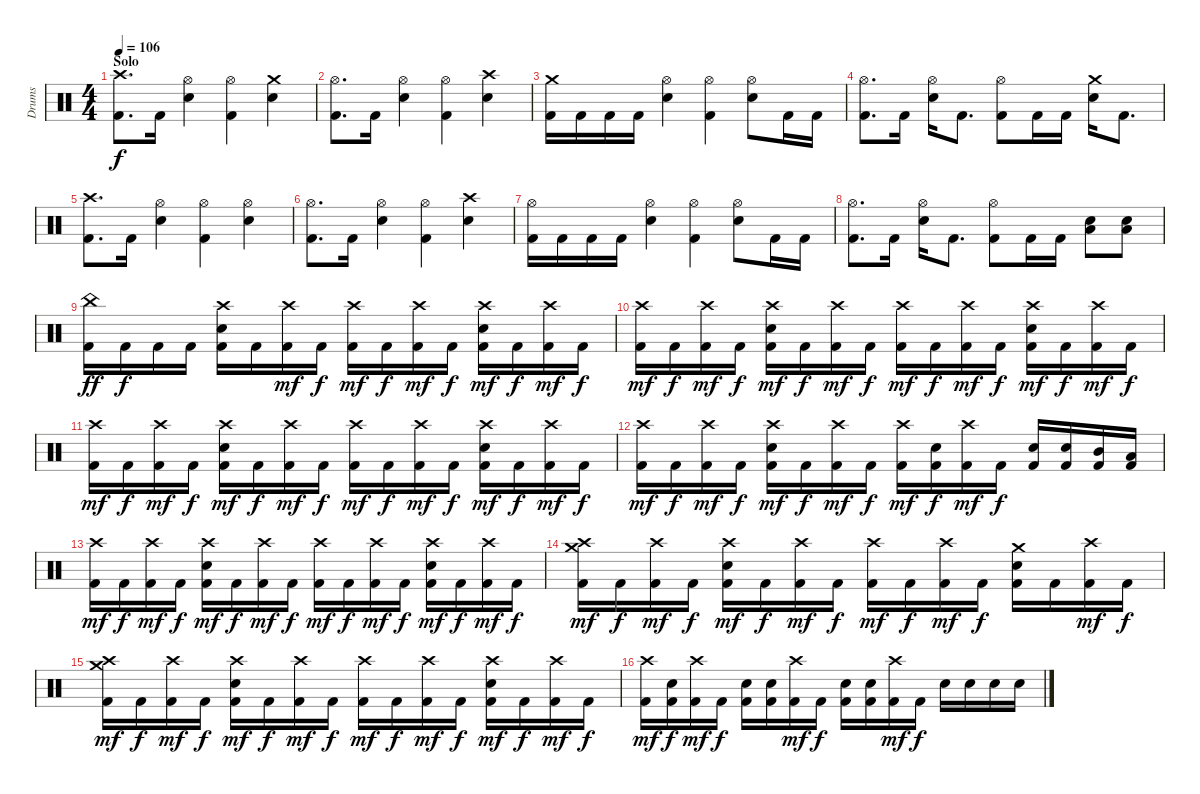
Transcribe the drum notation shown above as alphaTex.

\track ("Drums" "Drums") {instrument percussion}
\staff {score}
\articulation defaults
\ts (4 4)
\section ("" "Solo")
\tempo 106
\clef neutral
\ks c
("Crash high (hit)" "Kick (hit) 2").8{d dy f} "Kick (hit) 2".16 ("Hi-Hat (open)" "Electric Snare (hit)").4 ("Hi-Hat (open)" "Kick (hit) 2").4 ("Crash medium (hit)" "Electric Snare (hit)").4 |
("Hi-Hat (open)" "Kick (hit) 2").8{d} "Kick (hit) 2".16 ("Hi-Hat (open)" "Electric Snare (hit)").4 ("Hi-Hat (open)" "Kick (hit) 2").4 ("Crash high (hit)" "Electric Snare (hit)").4 |
("Crash medium (hit)" "Kick (hit) 2").16 "Kick (hit) 2".16 "Kick (hit) 2".16 "Kick (hit) 2".16 ("Hi-Hat (open)" "Electric Snare (hit)").4 ("Hi-Hat (open)" "Kick (hit) 2").4 ("Hi-Hat (open)" "Electric Snare (hit)").8 "Kick (hit) 2".16 "Kick (hit) 2".16 |
("Hi-Hat (open)" "Kick (hit) 2").8{d} "Kick (hit) 2".16 ("Hi-Hat (open)" "Electric Snare (hit)").16 "Kick (hit) 2".8{d} ("Hi-Hat (open)" "Kick (hit) 2").8 "Kick (hit) 2".16 "Kick (hit) 2".16 ("Crash medium (hit)" "Electric Snare (hit)").16 "Kick (hit) 2".8{d} |
("Crash high (hit)" "Kick (hit) 2").8{d} "Kick (hit) 2".16 ("Hi-Hat (open)" "Electric Snare (hit)").4 ("Hi-Hat (open)" "Kick (hit) 2").4 ("Hi-Hat (open)" "Electric Snare (hit)").4 |
("Hi-Hat (open)" "Kick (hit) 2").8{d} "Kick (hit) 2".16 ("Hi-Hat (open)" "Electric Snare (hit)").4 ("Hi-Hat (open)" "Kick (hit) 2").4 ("Crash high (hit)" "Electric Snare (hit)").4 |
("Hi-Hat (open)" "Kick (hit) 2").16 "Kick (hit) 2".16 "Kick (hit) 2".16 "Kick (hit) 2".16 ("Hi-Hat (open)" "Electric Snare (hit)").4 ("Hi-Hat (open)" "Kick (hit) 2").4 ("Hi-Hat (open)" "Electric Snare (hit)").8 "Kick (hit) 2".16 "Kick (hit) 2".16 |
("Hi-Hat (open)" "Kick (hit) 2").8{d} "Kick (hit) 2".16 ("Hi-Hat (open)" "Electric Snare (hit)").16 "Kick (hit) 2".8{d} ("Hi-Hat (open)" "Kick (hit) 2").8 "Kick (hit) 2".16 "Kick (hit) 2".16 ("Low Floor Tom (hit)" "Electric Snare (hit)").8 ("Low Floor Tom (hit)" "Electric Snare (hit)").8 |
("China (hit)" "Kick (hit) 2").16{dy ff} "Kick (hit) 2".16{dy f} "Kick (hit) 2".16 "Kick (hit) 2".16 ("Crash high (hit)" "Electric Snare (hit)" "Kick (hit) 2").16 "Kick (hit) 2".16 ("Crash high (hit)" "Kick (hit) 2").16{dy mf} "Kick (hit) 2".16{dy f} ("Crash high (hit)" "Kick (hit) 2").16{dy mf} "Kick (hit) 2".16{dy f} ("Crash high (hit)" "Kick (hit) 2").16{dy mf} "Kick (hit) 2".16{dy f} ("Crash high (hit)" "Electric Snare (hit)" "Kick (hit) 2").16{dy mf} "Kick (hit) 2".16{dy f} ("Crash high (hit)" "Kick (hit) 2").16{dy mf} "Kick (hit) 2".16{dy f} |
("Crash high (hit)" "Kick (hit) 2").16{dy mf} "Kick (hit) 2".16{dy f} ("Crash high (hit)" "Kick (hit) 2").16{dy mf} "Kick (hit) 2".16{dy f} ("Crash high (hit)" "Electric Snare (hit)" "Kick (hit) 2").16{dy mf} "Kick (hit) 2".16{dy f} ("Crash high (hit)" "Kick (hit) 2").16{dy mf} "Kick (hit) 2".16{dy f} ("Crash high (hit)" "Kick (hit) 2").16{dy mf} "Kick (hit) 2".16{dy f} ("Crash high (hit)" "Kick (hit) 2").16{dy mf} "Kick (hit) 2".16{dy f} ("Crash high (hit)" "Electric Snare (hit)" "Kick (hit) 2").16{dy mf} "Kick (hit) 2".16{dy f} ("Crash high (hit)" "Kick (hit) 2").16{dy mf} "Kick (hit) 2".16{dy f} |
("Crash high (hit)" "Kick (hit) 2").16{dy mf} "Kick (hit) 2".16{dy f} ("Crash high (hit)" "Kick (hit) 2").16{dy mf} "Kick (hit) 2".16{dy f} ("Crash high (hit)" "Electric Snare (hit)" "Kick (hit) 2").16{dy mf} "Kick (hit) 2".16{dy f} ("Crash high (hit)" "Kick (hit) 2").16{dy mf} "Kick (hit) 2".16{dy f} ("Crash high (hit)" "Kick (hit) 2").16{dy mf} "Kick (hit) 2".16{dy f} ("Crash high (hit)" "Kick (hit) 2").16{dy mf} "Kick (hit) 2".16{dy f} ("Crash high (hit)" "Electric Snare (hit)" "Kick (hit) 2").16{dy mf} "Kick (hit) 2".16{dy f} ("Crash high (hit)" "Kick (hit) 2").16{dy mf} "Kick (hit) 2".16{dy f} |
("Crash high (hit)" "Kick (hit) 2").16{dy mf} "Kick (hit) 2".16{dy f} ("Crash high (hit)" "Kick (hit) 2").16{dy mf} "Kick (hit) 2".16{dy f} ("Crash high (hit)" "Electric Snare (hit)" "Kick (hit) 2").16{dy mf} "Kick (hit) 2".16{dy f} ("Crash high (hit)" "Kick (hit) 2").16{dy mf} "Kick (hit) 2".16{dy f} ("Crash high (hit)" "Kick (hit) 2").16{dy mf} ("Electric Snare (hit)" "Kick (hit) 2").16{dy f} ("Crash high (hit)" "Kick (hit) 2").16{dy mf} "Kick (hit) 2".16{dy f} ("Electric Snare (hit)" "Kick (hit) 2").16 ("Electric Snare (hit)" "Kick (hit) 2").16 ("Mid Tom (hit)" "Kick (hit) 2").16 ("Low Tom (hit)" "Kick (hit) 2").16 |
("Crash high (hit)" "Kick (hit) 2").16{dy mf} "Kick (hit) 2".16{dy f} ("Crash high (hit)" "Kick (hit) 2").16{dy mf} "Kick (hit) 2".16{dy f} ("Crash high (hit)" "Electric Snare (hit)" "Kick (hit) 2").16{dy mf} "Kick (hit) 2".16{dy f} ("Crash high (hit)" "Kick (hit) 2").16{dy mf} "Kick (hit) 2".16{dy f} ("Crash high (hit)" "Kick (hit) 2").16{dy mf} "Kick (hit) 2".16{dy f} ("Crash high (hit)" "Kick (hit) 2").16{dy mf} "Kick (hit) 2".16{dy f} ("Crash high (hit)" "Electric Snare (hit)" "Kick (hit) 2").16{dy mf} "Kick (hit) 2".16{dy f} ("Crash high (hit)" "Kick (hit) 2").16{dy mf} "Kick (hit) 2".16{dy f} |
("Crash high (hit)" "Crash medium (hit)" "Kick (hit) 2").16{dy mf} "Kick (hit) 2".16{dy f} ("Crash high (hit)" "Kick (hit) 2").16{dy mf} "Kick (hit) 2".16{dy f} ("Crash high (hit)" "Electric Snare (hit)" "Kick (hit) 2").16{dy mf} "Kick (hit) 2".16{dy f} ("Crash high (hit)" "Kick (hit) 2").16{dy mf} "Kick (hit) 2".16{dy f} ("Crash high (hit)" "Kick (hit) 2").16{dy mf} "Kick (hit) 2".16{dy f} ("Crash high (hit)" "Kick (hit) 2").16{dy mf} "Kick (hit) 2".16{dy f} ("Crash medium (hit)" "Electric Snare (hit)" "Kick (hit) 2").16 "Kick (hit) 2".16 ("Crash high (hit)" "Kick (hit) 2").16{dy mf} "Kick (hit) 2".16{dy f} |
("Crash high (hit)" "Crash medium (hit)" "Kick (hit) 2").16{dy mf} "Kick (hit) 2".16{dy f} ("Crash high (hit)" "Kick (hit) 2").16{dy mf} "Kick (hit) 2".16{dy f} ("Crash high (hit)" "Electric Snare (hit)" "Kick (hit) 2").16{dy mf} "Kick (hit) 2".16{dy f} ("Crash high (hit)" "Kick (hit) 2").16{dy mf} "Kick (hit) 2".16{dy f} ("Crash high (hit)" "Kick (hit) 2").16{dy mf} "Kick (hit) 2".16{dy f} ("Crash high (hit)" "Kick (hit) 2").16{dy mf} "Kick (hit) 2".16{dy f} ("Crash high (hit)" "Electric Snare (hit)" "Kick (hit) 2").16{dy mf} "Kick (hit) 2".16{dy f} ("Crash high (hit)" "Kick (hit) 2").16{dy mf} "Kick (hit) 2".16{dy f} |
("Crash high (hit)" "Kick (hit) 2").16{dy mf} ("Electric Snare (hit)" "Kick (hit) 2").16{dy f} ("Crash high (hit)" "Kick (hit) 2").16{dy mf} "Kick (hit) 2".16{dy f} ("Electric Snare (hit)" "Kick (hit) 2").16 ("Electric Snare (hit)" "Kick (hit) 2").16 ("Crash high (hit)" "Kick (hit) 2").16{dy mf} "Kick (hit) 2".16{dy f} ("Electric Snare (hit)" "Kick (hit) 2").16 ("Electric Snare (hit)" "Kick (hit) 2").16 ("Crash high (hit)" "Kick (hit) 2").16{dy mf} "Kick (hit) 2".16{dy f} "Electric Snare (hit)".16 "Electric Snare (hit)".16 "Electric Snare (hit)".16 "Electric Snare (hit)".16
